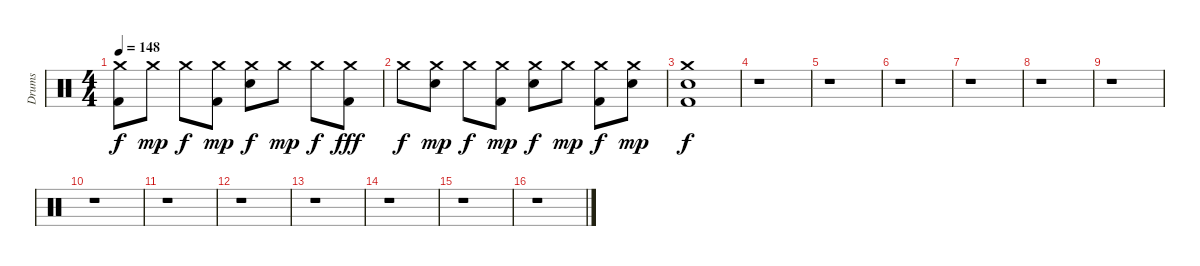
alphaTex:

\track ("Drums" "Drums") {instrument percussion}
\staff {score}
\articulation defaults
\ts (4 4)
\tempo 148
\clef neutral
\ks c
("Crash medium (hit)" "Kick (hit) 2").8{dy f} "Crash medium (hit)".8{dy mp} "Crash medium (hit)".8{dy f} ("Crash medium (hit)" "Kick (hit) 2").8{dy mp} ("Crash medium (hit)" "Snare (hit) 2").8{dy f} "Crash medium (hit)".8{dy mp} "Crash medium (hit)".8{dy f} ("Crash medium (hit)" "Kick (hit) 2").8{dy fff} |
"Crash medium (hit)".8{dy f} ("Crash medium (hit)" "Snare (hit) 2").8{dy mp} "Crash medium (hit)".8{dy f} ("Crash medium (hit)" "Kick (hit) 2").8{dy mp} ("Crash medium (hit)" "Snare (hit) 2").8{dy f} "Crash medium (hit)".8{dy mp} ("Crash medium (hit)" "Kick (hit) 2").8{dy f} ("Crash medium (hit)" "Snare (hit) 2").8{dy mp} |
("Crash medium (hit)" "Snare (hit) 2" "Kick (hit) 2").1{dy f} |
r.1 |
r.1 |
r.1 |
r.1 |
r.1 |
r.1 |
r.1 |
r.1 |
r.1 |
r.1 |
r.1 |
r.1 |
r.1
